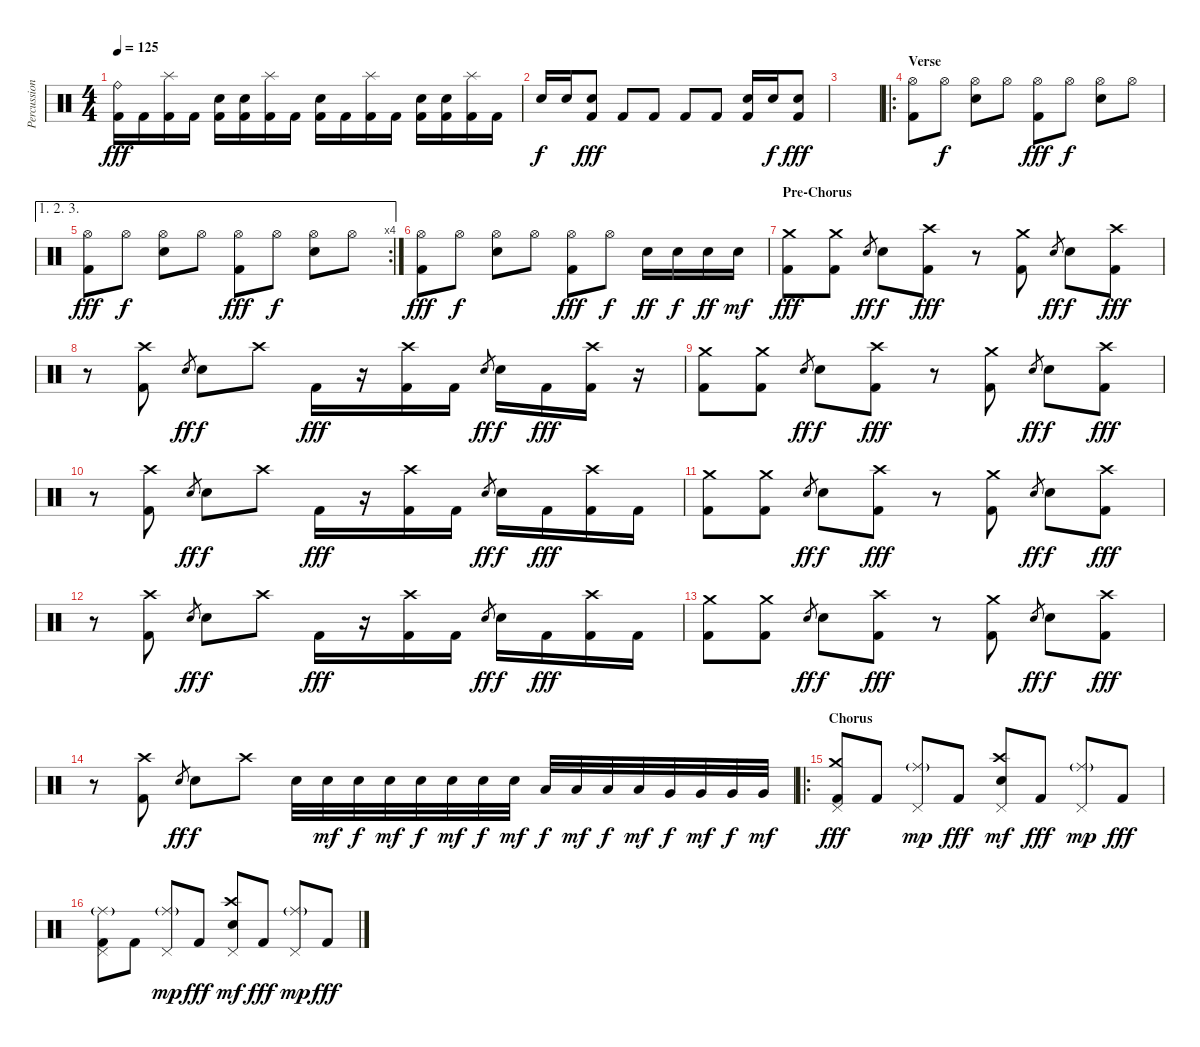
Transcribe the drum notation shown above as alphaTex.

\track ("Percussion" "Percussion") {instrument percussion}
\staff {score}
\articulation defaults
\ts (4 4)
\tempo 125
\clef neutral
\ks c
("Ride (bell)" "Kick (hit) 2").16{dy fff} "Kick (hit) 2".16 ("Splash (hit)" "Kick (hit) 2").16 "Kick (hit) 2".16 ("Electric Snare (hit)" "Kick (hit) 2").16 ("Electric Snare (hit)" "Kick (hit) 2").16 ("Splash (hit)" "Kick (hit) 2").16 "Kick (hit) 2".16 ("Electric Snare (hit)" "Kick (hit) 2").16 "Kick (hit) 2".16 ("Splash (hit)" "Kick (hit) 2").16 "Kick (hit) 2".16 ("Electric Snare (hit)" "Kick (hit) 2").16 ("Electric Snare (hit)" "Kick (hit) 2").16 ("Splash (hit)" "Kick (hit) 2").16 "Kick (hit) 2".16 |
"Electric Snare (hit)".16{dy f} "Electric Snare (hit)".16 ("Electric Snare (hit)" "Kick (hit) 2").8{dy fff} "Kick (hit) 2".8 "Kick (hit) 2".8 "Kick (hit) 2".8 "Kick (hit) 2".8 ("Electric Snare (hit)" "Kick (hit) 2").16 "Electric Snare (hit)".16{dy f} ("Electric Snare (hit)" "Kick (hit) 2").8{dy fff} |
|
\ro
\section ("" "Verse")
("Hi-Hat (open)" "Kick (hit) 2").8 "Hi-Hat (open)".8{dy f} ("Hi-Hat (open)" "Electric Snare (hit)").8 "Hi-Hat (open)".8 ("Hi-Hat (open)" "Kick (hit) 2").8{dy fff} "Hi-Hat (open)".8{dy f} ("Hi-Hat (open)" "Electric Snare (hit)").8 "Hi-Hat (open)".8 |
\ae (1 2 3)
\rc 4
("Hi-Hat (open)" "Kick (hit) 2").8{dy fff} "Hi-Hat (open)".8{dy f} ("Hi-Hat (open)" "Electric Snare (hit)").8 "Hi-Hat (open)".8 ("Hi-Hat (open)" "Kick (hit) 2").8{dy fff} "Hi-Hat (open)".8{dy f} ("Hi-Hat (open)" "Electric Snare (hit)").8 "Hi-Hat (open)".8 |
("Hi-Hat (open)" "Kick (hit) 2").8{dy fff} "Hi-Hat (open)".8{dy f} ("Hi-Hat (open)" "Electric Snare (hit)").8 "Hi-Hat (open)".8 ("Hi-Hat (open)" "Kick (hit) 2").8{dy fff} "Hi-Hat (open)".8{dy f} "Electric Snare (hit)".16{dy ff} "Electric Snare (hit)".16{dy f} "Electric Snare (hit)".16{dy ff} "Electric Snare (hit)".16{dy mf} |
\section ("" "Pre-Chorus")
("Crash medium (hit)" "Kick (hit) 2").8{dy fff} ("Crash medium (hit)" "Kick (hit) 2").8 "Electric Snare (hit)".8{gr dy ff} "Electric Snare (hit)".8{dy f} ("Crash high (hit)" "Kick (hit) 2").8{dy fff} r.8 ("Crash medium (hit)" "Kick (hit) 2").8 "Electric Snare (hit)".8{gr dy ff} "Electric Snare (hit)".8{dy f} ("Crash high (hit)" "Kick (hit) 2").8{dy fff} |
r.8 ("Crash high (hit)" "Kick (hit) 2").8 "Electric Snare (hit)".8{gr dy ff} "Electric Snare (hit)".8{dy f} "Crash high (hit)".8 "Kick (hit) 2".16{dy fff} r.16 ("Crash high (hit)" "Kick (hit) 2").16 "Kick (hit) 2".16 "Electric Snare (hit)".8{gr dy ff} "Electric Snare (hit)".16{dy f} "Kick (hit) 2".16{dy fff} ("Crash high (hit)" "Kick (hit) 2").16 r.16 |
("Crash medium (hit)" "Kick (hit) 2").8 ("Crash medium (hit)" "Kick (hit) 2").8 "Electric Snare (hit)".8{gr dy ff} "Electric Snare (hit)".8{dy f} ("Crash high (hit)" "Kick (hit) 2").8{dy fff} r.8 ("Crash medium (hit)" "Kick (hit) 2").8 "Electric Snare (hit)".8{gr dy ff} "Electric Snare (hit)".8{dy f} ("Crash high (hit)" "Kick (hit) 2").8{dy fff} |
r.8 ("Crash high (hit)" "Kick (hit) 2").8 "Electric Snare (hit)".8{gr dy ff} "Electric Snare (hit)".8{dy f} "Crash high (hit)".8 "Kick (hit) 2".16{dy fff} r.16 ("Crash high (hit)" "Kick (hit) 2").16 "Kick (hit) 2".16 "Electric Snare (hit)".8{gr dy ff} "Electric Snare (hit)".16{dy f} "Kick (hit) 2".16{dy fff} ("Crash high (hit)" "Kick (hit) 2").16 "Kick (hit) 2".16 |
("Crash medium (hit)" "Kick (hit) 2").8 ("Crash medium (hit)" "Kick (hit) 2").8 "Electric Snare (hit)".8{gr dy ff} "Electric Snare (hit)".8{dy f} ("Crash high (hit)" "Kick (hit) 2").8{dy fff} r.8 ("Crash medium (hit)" "Kick (hit) 2").8 "Electric Snare (hit)".8{gr dy ff} "Electric Snare (hit)".8{dy f} ("Crash high (hit)" "Kick (hit) 2").8{dy fff} |
r.8 ("Crash high (hit)" "Kick (hit) 2").8 "Electric Snare (hit)".8{gr dy ff} "Electric Snare (hit)".8{dy f} "Crash high (hit)".8 "Kick (hit) 2".16{dy fff} r.16 ("Crash high (hit)" "Kick (hit) 2").16 "Kick (hit) 2".16 "Electric Snare (hit)".8{gr dy ff} "Electric Snare (hit)".16{dy f} "Kick (hit) 2".16{dy fff} ("Crash high (hit)" "Kick (hit) 2").16 "Kick (hit) 2".16 |
("Crash medium (hit)" "Kick (hit) 2").8 ("Crash medium (hit)" "Kick (hit) 2").8 "Electric Snare (hit)".8{gr dy ff} "Electric Snare (hit)".8{dy f} ("Crash high (hit)" "Kick (hit) 2").8{dy fff} r.8 ("Crash medium (hit)" "Kick (hit) 2").8 "Electric Snare (hit)".8{gr dy ff} "Electric Snare (hit)".8{dy f} ("Crash high (hit)" "Kick (hit) 2").8{dy fff} |
r.8 ("Crash high (hit)" "Kick (hit) 2").8 "Electric Snare (hit)".8{gr dy ff} "Electric Snare (hit)".8{dy f} "Crash high (hit)".8 "Electric Snare (hit)".32 "Electric Snare (hit)".32{dy mf} "Electric Snare (hit)".32{dy f} "Electric Snare (hit)".32{dy mf} "Electric Snare (hit)".32{dy f} "Electric Snare (hit)".32{dy mf} "Electric Snare (hit)".32{dy f} "Electric Snare (hit)".32{dy mf} "Low Tom (hit)".32{dy f} "Low Tom (hit)".32{dy mf} "Low Tom (hit)".32{dy f} "Low Tom (hit)".32{dy mf} "Very Low Tom (hit)".32{dy f} "Very Low Tom (hit)".32{dy mf} "Very Low Tom (hit)".32{dy f} "Very Low Tom (hit)".32{dy mf} |
\ro
\section ("" "Chorus")
("Crash medium (hit)" "Pedal Hi-Hat (hit)" "Kick (hit) 2").8{dy fff} "Kick (hit) 2".8 ("Ride (middle)"{g} "Pedal Hi-Hat (hit)").8{dy mp} "Kick (hit) 2".8{dy fff} ("Crash high (hit)" "Pedal Hi-Hat (hit)" "Electric Snare (hit)").8{dy mf} "Kick (hit) 2".8{dy fff} ("Ride (middle)"{g} "Pedal Hi-Hat (hit)").8{dy mp} "Kick (hit) 2".8{dy fff} |
("Ride (middle)"{g} "Pedal Hi-Hat (hit)" "Kick (hit) 2").8 "Kick (hit) 2".8 ("Ride (middle)"{g} "Pedal Hi-Hat (hit)").8{dy mp} "Kick (hit) 2".8{dy fff} ("Crash high (hit)" "Pedal Hi-Hat (hit)" "Electric Snare (hit)").8{dy mf} "Kick (hit) 2".8{dy fff} ("Ride (middle)"{g} "Pedal Hi-Hat (hit)").8{dy mp} "Kick (hit) 2".8{dy fff}
